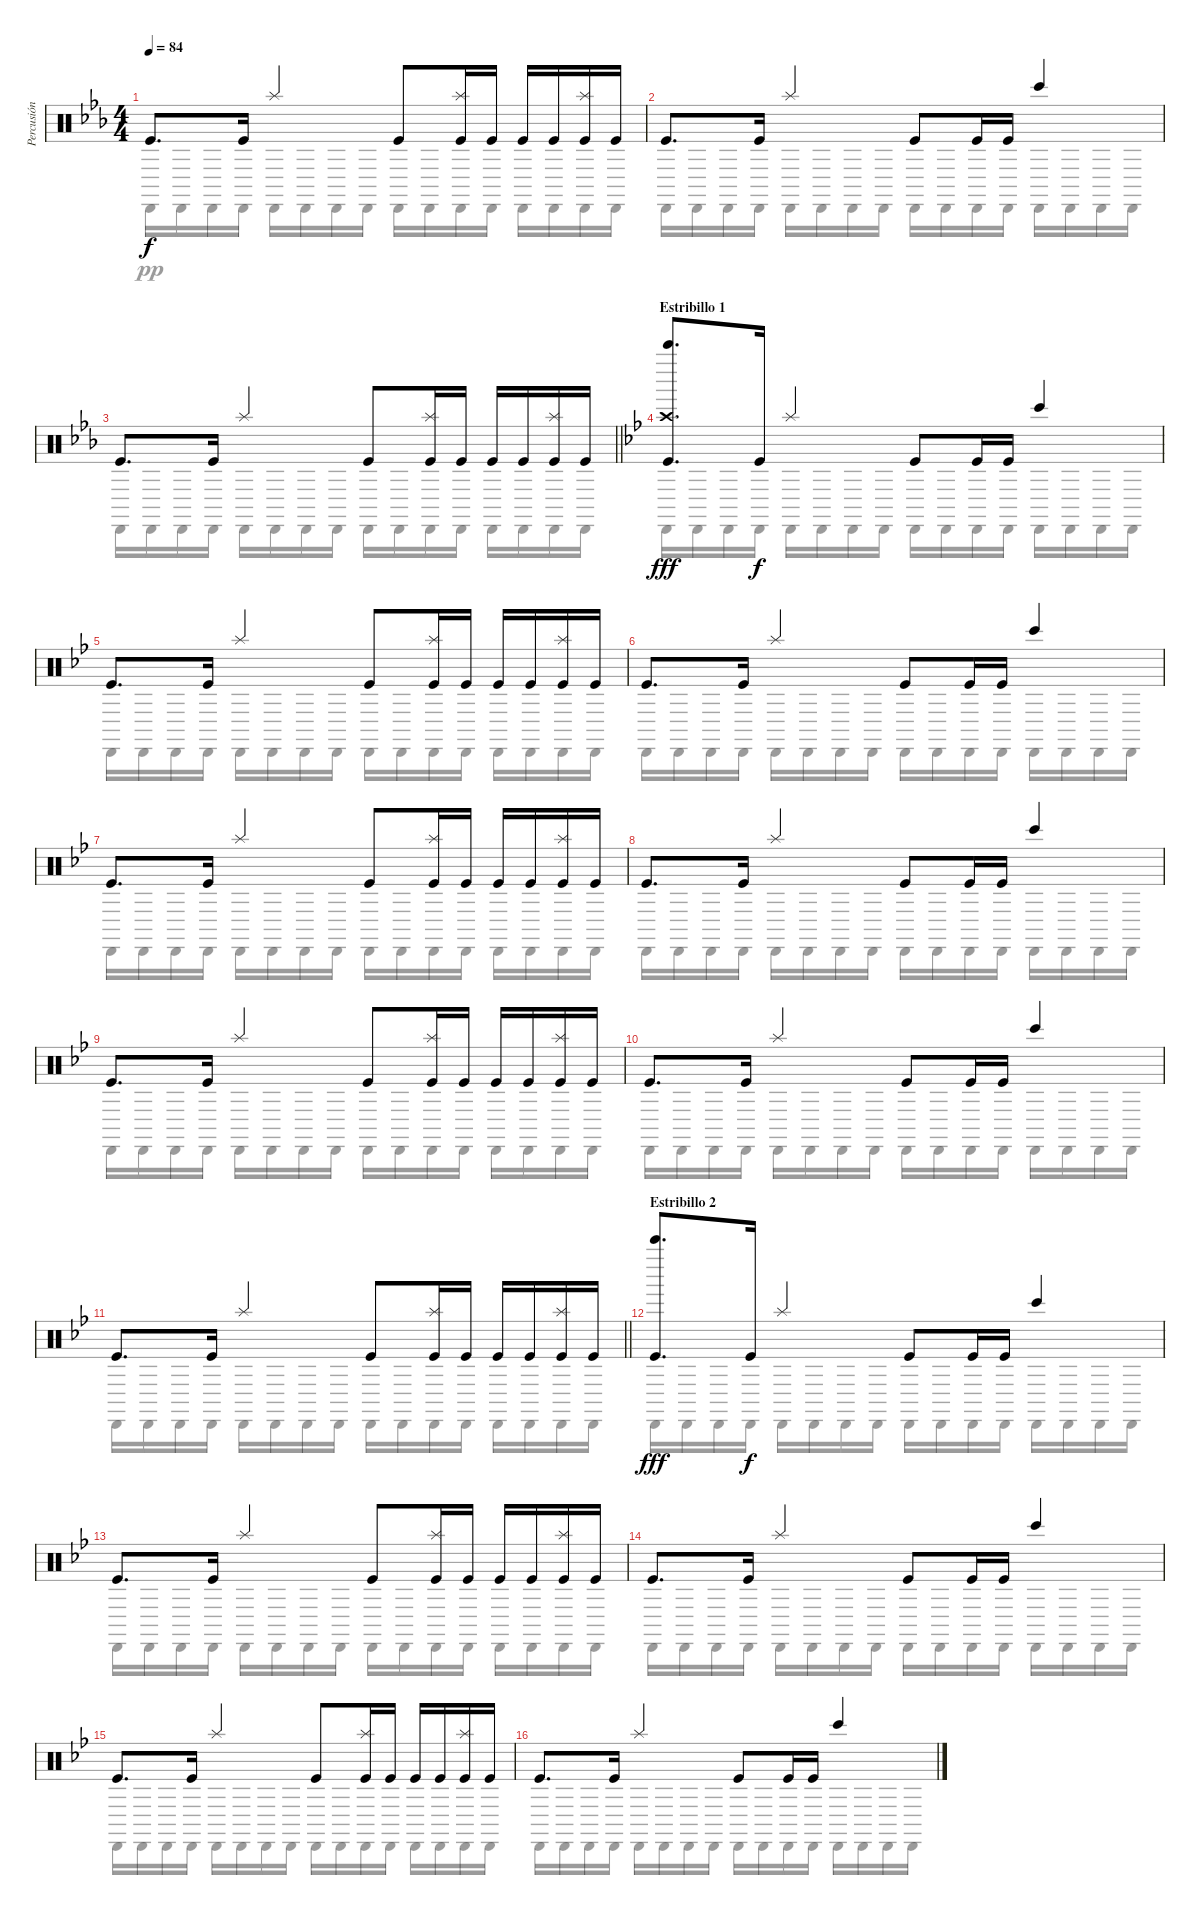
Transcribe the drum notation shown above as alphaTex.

\track ("Percusión" "Percusión") {instrument percussion}
\staff {score}
\articulation defaults
\voice
\ts (4 4)
\tempo 84
\clef neutral
\ks eb "Kick (hit)".8{d dy f} "Kick (hit)".16 "Splash (hit)".4 "Kick (hit)".8
("Splash (hit)" "Kick (hit)").16 "Kick (hit)".16 "Kick (hit)".16 "Kick (hit)".16 ("Splash (hit)" "Kick (hit)").16 "Kick (hit)".16 |
"Kick (hit)".8{d} "Kick (hit)".16 "Splash (hit)".4 "Kick (hit)".8 "Kick (hit)".16 "Kick (hit)".16 "Bongo High (hit)".4 |
\barLineRight lightlight "Kick (hit)".8{d} "Kick (hit)".16 "Splash (hit)".4 "Kick (hit)".8
("Splash (hit)" "Kick (hit)").16 "Kick (hit)".16 "Kick (hit)".16 "Kick (hit)".16 ("Splash (hit)" "Kick (hit)").16 "Kick (hit)".16 |
\section ("" "Estribillo 1")
\ks bb
("Bell Tree (hit)" "Crash high (hit)" "Kick (hit)").8{d dy fff} "Kick (hit)".16{dy f} "Splash (hit)".4 "Kick (hit)".8 "Kick (hit)".16 "Kick (hit)".16 "Bongo High (hit)".4 |
"Kick (hit)".8{d} "Kick (hit)".16 "Splash (hit)".4 "Kick (hit)".8 ("Splash (hit)" "Kick (hit)").16 "Kick (hit)".16 "Kick (hit)".16 "Kick (hit)".16 ("Splash (hit)" "Kick (hit)").16 "Kick (hit)".16 |
"Kick (hit)".8{d} "Kick (hit)".16 "Splash (hit)".4 "Kick (hit)".8 "Kick (hit)".16 "Kick (hit)".16 "Bongo High (hit)".4 |
"Kick (hit)".8{d} "Kick (hit)".16 "Splash (hit)".4 "Kick (hit)".8 ("Splash (hit)" "Kick (hit)").16 "Kick (hit)".16 "Kick (hit)".16 "Kick (hit)".16 ("Splash (hit)" "Kick (hit)").16 "Kick (hit)".16 |
"Kick (hit)".8{d} "Kick (hit)".16 "Splash (hit)".4 "Kick (hit)".8 "Kick (hit)".16 "Kick (hit)".16 "Bongo High (hit)".4 |
"Kick (hit)".8{d} "Kick (hit)".16 "Splash (hit)".4 "Kick (hit)".8 ("Splash (hit)" "Kick (hit)").16 "Kick (hit)".16 "Kick (hit)".16 "Kick (hit)".16 ("Splash (hit)" "Kick (hit)").16 "Kick (hit)".16 |
"Kick (hit)".8{d} "Kick (hit)".16 "Splash (hit)".4 "Kick (hit)".8 "Kick (hit)".16 "Kick (hit)".16 "Bongo High (hit)".4 |
\barLineRight lightlight "Kick (hit)".8{d} "Kick (hit)".16 "Splash (hit)".4 "Kick (hit)".8
("Splash (hit)" "Kick (hit)").16 "Kick (hit)".16 "Kick (hit)".16 "Kick (hit)".16 ("Splash (hit)" "Kick (hit)").16 "Kick (hit)".16 |
\section ("" "Estribillo 2")
("Bell Tree (hit)" "Kick (hit)").8{d dy fff} "Kick (hit)".16{dy f} "Splash (hit)".4 "Kick (hit)".8 "Kick (hit)".16 "Kick (hit)".16 "Bongo High (hit)".4 |
"Kick (hit)".8{d} "Kick (hit)".16 "Splash (hit)".4 "Kick (hit)".8 ("Splash (hit)" "Kick (hit)").16 "Kick (hit)".16 "Kick (hit)".16 "Kick (hit)".16 ("Splash (hit)" "Kick (hit)").16 "Kick (hit)".16 |
"Kick (hit)".8{d} "Kick (hit)".16 "Splash (hit)".4 "Kick (hit)".8 "Kick (hit)".16 "Kick (hit)".16 "Bongo High (hit)".4 |
"Kick (hit)".8{d} "Kick (hit)".16 "Splash (hit)".4 "Kick (hit)".8 ("Splash (hit)" "Kick (hit)").16 "Kick (hit)".16 "Kick (hit)".16 "Kick (hit)".16 ("Splash (hit)" "Kick (hit)").16 "Kick (hit)".16 |
"Kick (hit)".8{d} "Kick (hit)".16 "Splash (hit)".4 "Kick (hit)".8 "Kick (hit)".16 "Kick (hit)".16 "Bongo High (hit)".4
\voice
\clef neutral
\ottava regular
\simile none
\ks eb "Cabasa (hit)".16{dy pp} "Cabasa (hit)".16 "Cabasa (hit)".16 "Cabasa (hit)".16 "Cabasa (hit)".16 "Cabasa (hit)".16 "Cabasa (hit)".16 "Cabasa (hit)".16 "Cabasa (hit)".16 "Cabasa (hit)".16 "Cabasa (hit)".16 "Cabasa (hit)".16 "Cabasa (hit)".16 "Cabasa (hit)".16 "Cabasa (hit)".16 "Cabasa (hit)".16
|
"Cabasa (hit)".16 "Cabasa (hit)".16 "Cabasa (hit)".16 "Cabasa (hit)".16 "Cabasa (hit)".16 "Cabasa (hit)".16 "Cabasa (hit)".16 "Cabasa (hit)".16 "Cabasa (hit)".16 "Cabasa (hit)".16 "Cabasa (hit)".16 "Cabasa (hit)".16 "Cabasa (hit)".16 "Cabasa (hit)".16 "Cabasa (hit)".16 "Cabasa (hit)".16 |
\barLineRight lightlight "Cabasa (hit)".16 "Cabasa (hit)".16 "Cabasa (hit)".16 "Cabasa (hit)".16 "Cabasa (hit)".16 "Cabasa (hit)".16 "Cabasa (hit)".16 "Cabasa (hit)".16 "Cabasa (hit)".16 "Cabasa (hit)".16 "Cabasa (hit)".16 "Cabasa (hit)".16 "Cabasa (hit)".16 "Cabasa (hit)".16 "Cabasa (hit)".16 "Cabasa (hit)".16
|
\ks bb "Cabasa (hit)".16 "Cabasa (hit)".16 "Cabasa (hit)".16 "Cabasa (hit)".16 "Cabasa (hit)".16 "Cabasa (hit)".16 "Cabasa (hit)".16 "Cabasa (hit)".16 "Cabasa (hit)".16 "Cabasa (hit)".16 "Cabasa (hit)".16 "Cabasa (hit)".16 "Cabasa (hit)".16 "Cabasa (hit)".16 "Cabasa (hit)".16 "Cabasa (hit)".16
|
"Cabasa (hit)".16 "Cabasa (hit)".16 "Cabasa (hit)".16 "Cabasa (hit)".16 "Cabasa (hit)".16 "Cabasa (hit)".16 "Cabasa (hit)".16 "Cabasa (hit)".16 "Cabasa (hit)".16 "Cabasa (hit)".16 "Cabasa (hit)".16 "Cabasa (hit)".16 "Cabasa (hit)".16 "Cabasa (hit)".16 "Cabasa (hit)".16 "Cabasa (hit)".16 |
"Cabasa (hit)".16 "Cabasa (hit)".16 "Cabasa (hit)".16 "Cabasa (hit)".16 "Cabasa (hit)".16 "Cabasa (hit)".16 "Cabasa (hit)".16 "Cabasa (hit)".16 "Cabasa (hit)".16 "Cabasa (hit)".16 "Cabasa (hit)".16 "Cabasa (hit)".16 "Cabasa (hit)".16 "Cabasa (hit)".16 "Cabasa (hit)".16 "Cabasa (hit)".16 |
"Cabasa (hit)".16 "Cabasa (hit)".16 "Cabasa (hit)".16 "Cabasa (hit)".16 "Cabasa (hit)".16 "Cabasa (hit)".16 "Cabasa (hit)".16 "Cabasa (hit)".16 "Cabasa (hit)".16 "Cabasa (hit)".16 "Cabasa (hit)".16 "Cabasa (hit)".16 "Cabasa (hit)".16 "Cabasa (hit)".16 "Cabasa (hit)".16 "Cabasa (hit)".16 |
"Cabasa (hit)".16 "Cabasa (hit)".16 "Cabasa (hit)".16 "Cabasa (hit)".16 "Cabasa (hit)".16 "Cabasa (hit)".16 "Cabasa (hit)".16 "Cabasa (hit)".16 "Cabasa (hit)".16 "Cabasa (hit)".16 "Cabasa (hit)".16 "Cabasa (hit)".16 "Cabasa (hit)".16 "Cabasa (hit)".16 "Cabasa (hit)".16 "Cabasa (hit)".16 |
"Cabasa (hit)".16 "Cabasa (hit)".16 "Cabasa (hit)".16 "Cabasa (hit)".16 "Cabasa (hit)".16 "Cabasa (hit)".16 "Cabasa (hit)".16 "Cabasa (hit)".16 "Cabasa (hit)".16 "Cabasa (hit)".16 "Cabasa (hit)".16 "Cabasa (hit)".16 "Cabasa (hit)".16 "Cabasa (hit)".16 "Cabasa (hit)".16 "Cabasa (hit)".16 |
"Cabasa (hit)".16 "Cabasa (hit)".16 "Cabasa (hit)".16 "Cabasa (hit)".16 "Cabasa (hit)".16 "Cabasa (hit)".16 "Cabasa (hit)".16 "Cabasa (hit)".16 "Cabasa (hit)".16 "Cabasa (hit)".16 "Cabasa (hit)".16 "Cabasa (hit)".16 "Cabasa (hit)".16 "Cabasa (hit)".16 "Cabasa (hit)".16 "Cabasa (hit)".16 |
\barLineRight lightlight "Cabasa (hit)".16 "Cabasa (hit)".16 "Cabasa (hit)".16 "Cabasa (hit)".16 "Cabasa (hit)".16 "Cabasa (hit)".16 "Cabasa (hit)".16 "Cabasa (hit)".16 "Cabasa (hit)".16 "Cabasa (hit)".16 "Cabasa (hit)".16 "Cabasa (hit)".16 "Cabasa (hit)".16 "Cabasa (hit)".16 "Cabasa (hit)".16 "Cabasa (hit)".16
|
"Cabasa (hit)".16 "Cabasa (hit)".16 "Cabasa (hit)".16 "Cabasa (hit)".16 "Cabasa (hit)".16 "Cabasa (hit)".16 "Cabasa (hit)".16 "Cabasa (hit)".16 "Cabasa (hit)".16 "Cabasa (hit)".16 "Cabasa (hit)".16 "Cabasa (hit)".16 "Cabasa (hit)".16 "Cabasa (hit)".16 "Cabasa (hit)".16 "Cabasa (hit)".16 |
"Cabasa (hit)".16 "Cabasa (hit)".16 "Cabasa (hit)".16 "Cabasa (hit)".16 "Cabasa (hit)".16 "Cabasa (hit)".16 "Cabasa (hit)".16 "Cabasa (hit)".16 "Cabasa (hit)".16 "Cabasa (hit)".16 "Cabasa (hit)".16 "Cabasa (hit)".16 "Cabasa (hit)".16 "Cabasa (hit)".16 "Cabasa (hit)".16 "Cabasa (hit)".16 |
"Cabasa (hit)".16 "Cabasa (hit)".16 "Cabasa (hit)".16 "Cabasa (hit)".16 "Cabasa (hit)".16 "Cabasa (hit)".16 "Cabasa (hit)".16 "Cabasa (hit)".16 "Cabasa (hit)".16 "Cabasa (hit)".16 "Cabasa (hit)".16 "Cabasa (hit)".16 "Cabasa (hit)".16 "Cabasa (hit)".16 "Cabasa (hit)".16 "Cabasa (hit)".16 |
"Cabasa (hit)".16 "Cabasa (hit)".16 "Cabasa (hit)".16 "Cabasa (hit)".16 "Cabasa (hit)".16 "Cabasa (hit)".16 "Cabasa (hit)".16 "Cabasa (hit)".16 "Cabasa (hit)".16 "Cabasa (hit)".16 "Cabasa (hit)".16 "Cabasa (hit)".16 "Cabasa (hit)".16 "Cabasa (hit)".16 "Cabasa (hit)".16 "Cabasa (hit)".16 |
"Cabasa (hit)".16 "Cabasa (hit)".16 "Cabasa (hit)".16 "Cabasa (hit)".16 "Cabasa (hit)".16 "Cabasa (hit)".16 "Cabasa (hit)".16 "Cabasa (hit)".16 "Cabasa (hit)".16 "Cabasa (hit)".16 "Cabasa (hit)".16 "Cabasa (hit)".16 "Cabasa (hit)".16 "Cabasa (hit)".16 "Cabasa (hit)".16 "Cabasa (hit)".16
